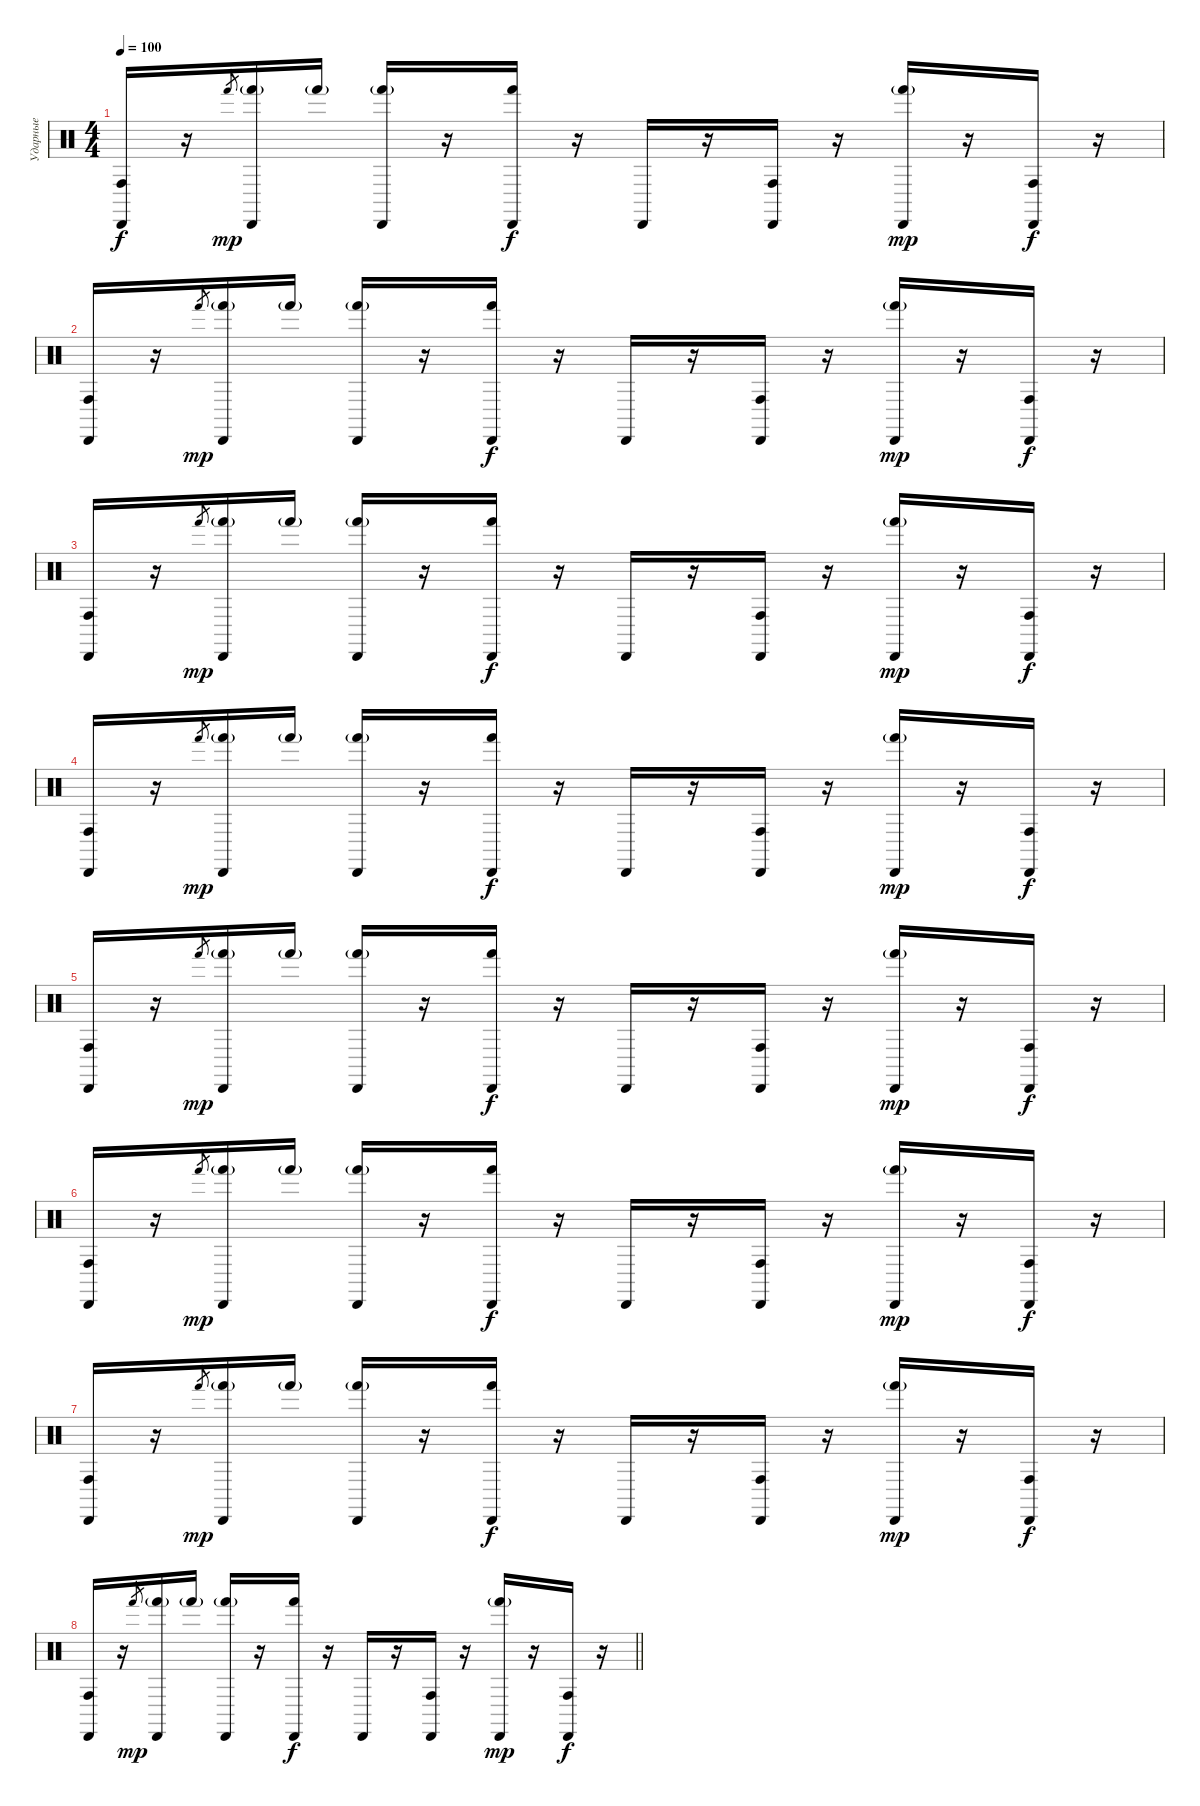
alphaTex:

\track ("Ударные" "Ударные") {instrument percussion}
\staff {score}
\articulation defaults
\ts (4 4)
\tempo 100
\clef neutral
\ks c
("Conga high (hit)" "Cabasa (hit)").16{dy f} r.16 "Hand (hit)".8{gr dy mp} ("Hand (hit)"{g} "Cabasa (hit)").16 "Hand (hit)"{g}.16 ("Hand (hit)"{g} "Cabasa (hit)").16 r.16 ("Hand (hit)" "Cabasa (hit)").16{dy f} r.16 "Cabasa (hit)".16 r.16 ("Conga high (hit)" "Cabasa (hit)").16 r.16 ("Hand (hit)"{g} "Cabasa (hit)").16{dy mp} r.16 ("Conga high (hit)" "Cabasa (hit)").16{dy f} r.16 |
("Conga high (hit)" "Cabasa (hit)").16 r.16 "Hand (hit)".8{gr dy mp} ("Hand (hit)"{g} "Cabasa (hit)").16 "Hand (hit)"{g}.16 ("Hand (hit)"{g} "Cabasa (hit)").16 r.16 ("Hand (hit)" "Cabasa (hit)").16{dy f} r.16 "Cabasa (hit)".16 r.16 ("Conga high (hit)" "Cabasa (hit)").16 r.16 ("Hand (hit)"{g} "Cabasa (hit)").16{dy mp} r.16 ("Conga high (hit)" "Cabasa (hit)").16{dy f} r.16 |
("Conga high (hit)" "Cabasa (hit)").16 r.16 "Hand (hit)".8{gr dy mp} ("Hand (hit)"{g} "Cabasa (hit)").16 "Hand (hit)"{g}.16 ("Hand (hit)"{g} "Cabasa (hit)").16 r.16 ("Hand (hit)" "Cabasa (hit)").16{dy f} r.16 "Cabasa (hit)".16 r.16 ("Conga high (hit)" "Cabasa (hit)").16 r.16 ("Hand (hit)"{g} "Cabasa (hit)").16{dy mp} r.16 ("Conga high (hit)" "Cabasa (hit)").16{dy f} r.16 |
("Conga high (hit)" "Cabasa (hit)").16 r.16 "Hand (hit)".8{gr dy mp} ("Hand (hit)"{g} "Cabasa (hit)").16 "Hand (hit)"{g}.16 ("Hand (hit)"{g} "Cabasa (hit)").16 r.16 ("Hand (hit)" "Cabasa (hit)").16{dy f} r.16 "Cabasa (hit)".16 r.16 ("Conga high (hit)" "Cabasa (hit)").16 r.16 ("Hand (hit)"{g} "Cabasa (hit)").16{dy mp} r.16 ("Conga high (hit)" "Cabasa (hit)").16{dy f} r.16 |
("Conga high (hit)" "Cabasa (hit)").16 r.16 "Hand (hit)".8{gr dy mp} ("Hand (hit)"{g} "Cabasa (hit)").16 "Hand (hit)"{g}.16 ("Hand (hit)"{g} "Cabasa (hit)").16 r.16 ("Hand (hit)" "Cabasa (hit)").16{dy f} r.16 "Cabasa (hit)".16 r.16 ("Conga high (hit)" "Cabasa (hit)").16 r.16 ("Hand (hit)"{g} "Cabasa (hit)").16{dy mp} r.16 ("Conga high (hit)" "Cabasa (hit)").16{dy f} r.16 |
("Conga high (hit)" "Cabasa (hit)").16 r.16 "Hand (hit)".8{gr dy mp} ("Hand (hit)"{g} "Cabasa (hit)").16 "Hand (hit)"{g}.16 ("Hand (hit)"{g} "Cabasa (hit)").16 r.16 ("Hand (hit)" "Cabasa (hit)").16{dy f} r.16 "Cabasa (hit)".16 r.16 ("Conga high (hit)" "Cabasa (hit)").16 r.16 ("Hand (hit)"{g} "Cabasa (hit)").16{dy mp} r.16 ("Conga high (hit)" "Cabasa (hit)").16{dy f} r.16 |
("Conga high (hit)" "Cabasa (hit)").16 r.16 "Hand (hit)".8{gr dy mp} ("Hand (hit)"{g} "Cabasa (hit)").16 "Hand (hit)"{g}.16 ("Hand (hit)"{g} "Cabasa (hit)").16 r.16 ("Hand (hit)" "Cabasa (hit)").16{dy f} r.16 "Cabasa (hit)".16 r.16 ("Conga high (hit)" "Cabasa (hit)").16 r.16 ("Hand (hit)"{g} "Cabasa (hit)").16{dy mp} r.16 ("Conga high (hit)" "Cabasa (hit)").16{dy f} r.16 |
\barLineRight lightlight
("Conga high (hit)" "Cabasa (hit)").16 r.16 "Hand (hit)".8{gr dy mp} ("Hand (hit)"{g} "Cabasa (hit)").16 "Hand (hit)"{g}.16 ("Hand (hit)"{g} "Cabasa (hit)").16 r.16 ("Hand (hit)" "Cabasa (hit)").16{dy f} r.16 "Cabasa (hit)".16 r.16 ("Conga high (hit)" "Cabasa (hit)").16 r.16 ("Hand (hit)"{g} "Cabasa (hit)").16{dy mp} r.16 ("Conga high (hit)" "Cabasa (hit)").16{dy f} r.16
